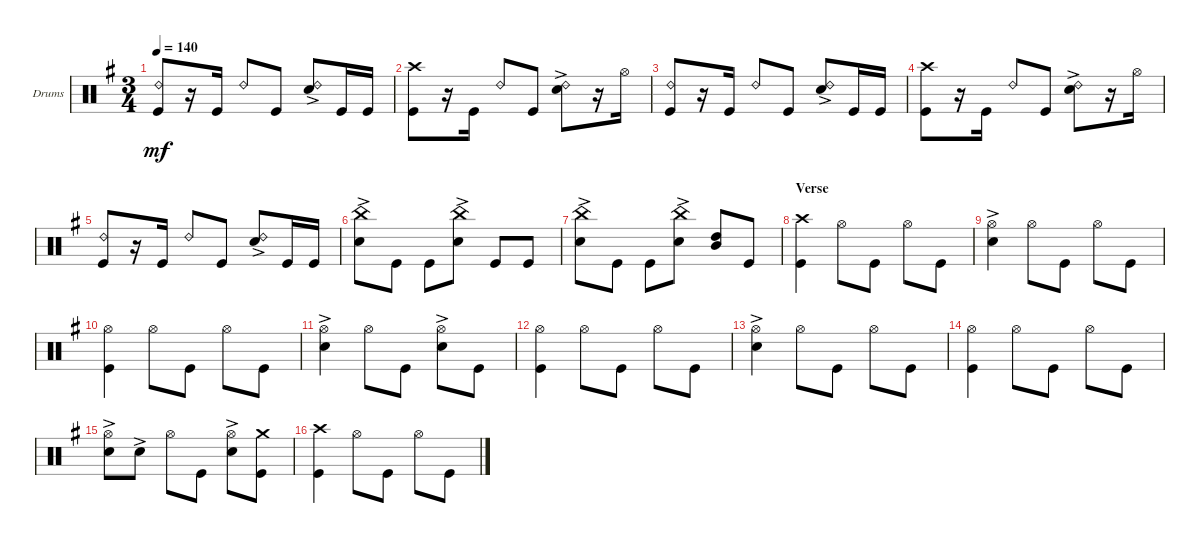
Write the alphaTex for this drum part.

\bracketExtendMode groupsimilarinstruments
\firstSystemTrackNameOrientation horizontal
\otherSystemsTrackNameOrientation horizontal
\track ("Drumkit" "Drums") {instrument percussion}
\staff {score}
\articulation defaults
\ts (3 4)
\tempo 140
\clef neutral
\ks eminor
("Kick (hit)" "Ride (bell) 2").8{dy mf} r.16 "Kick (hit)".16 "Ride (bell) 2".8 "Kick (hit)".8 ("Snare (hit) 2"{ac} "Ride (bell) 2").8 "Kick (hit)".16 "Kick (hit)".16 |
("Kick (hit)" "Crash high (hit)").8 r.16 "Kick (hit)".16 "Ride (bell) 2".8 "Kick (hit)".8 ("Snare (hit) 2"{ac} "Ride (bell) 2").8 r.16 "Hi-Hat (open)".16 |
("Kick (hit)" "Ride (bell) 2").8 r.16 "Kick (hit)".16 "Ride (bell) 2".8 "Kick (hit)".8 ("Snare (hit) 2"{ac} "Ride (bell) 2").8 "Kick (hit)".16 "Kick (hit)".16 |
("Kick (hit)" "Crash high (hit)").8 r.16 "Kick (hit)".16 "Ride (bell) 2".8 "Kick (hit)".8 ("Snare (hit) 2"{ac} "Ride (bell) 2").8 r.16 "Hi-Hat (open)".16 |
("Kick (hit)" "Ride (bell) 2").8 r.16 "Kick (hit)".16 "Ride (bell) 2".8 "Kick (hit)".8 ("Snare (hit) 2"{ac} "Ride (bell) 2").8 "Kick (hit)".16 "Kick (hit)".16 |
("Snare (hit) 2"{ac} "China (hit)").8 "Kick (hit)".8 "Kick (hit)".8 ("Snare (hit) 2"{ac} "China (hit)").8 "Kick (hit)".8 "Kick (hit)".8 |
("Snare (hit) 2"{ac} "China (hit)").8 "Kick (hit)".8 "Kick (hit)".8 ("Snare (hit) 2"{ac} "China (hit)").8 ("Mid Tom (hit)" "High Tom (hit)").8 "Kick (hit)".8 |
\section ("" "Verse")
("Kick (hit)" "Crash high (hit)").4 "Hi-Hat (open)".8 "Kick (hit)".8 "Hi-Hat (open)".8 "Kick (hit)".8 |
("Snare (hit) 2"{ac} "Hi-Hat (open)").4 "Hi-Hat (open)".8 "Kick (hit)".8 "Hi-Hat (open)".8 "Kick (hit)".8 |
("Kick (hit)" "Hi-Hat (open)").4 "Hi-Hat (open)".8 "Kick (hit)".8 "Hi-Hat (open)".8 "Kick (hit)".8 |
("Snare (hit) 2"{ac} "Hi-Hat (open)").4 "Hi-Hat (open)".8 "Kick (hit)".8 ("Hi-Hat (open)" "Snare (hit) 2"{ac}).8 "Kick (hit)".8 |
("Kick (hit)" "Hi-Hat (open)").4 "Hi-Hat (open)".8 "Kick (hit)".8 "Hi-Hat (open)".8 "Kick (hit)".8 |
("Snare (hit) 2"{ac} "Hi-Hat (open)").4 "Hi-Hat (open)".8 "Kick (hit)".8 "Hi-Hat (open)".8 "Kick (hit)".8 |
("Kick (hit)" "Hi-Hat (open)").4 "Hi-Hat (open)".8 "Kick (hit)".8 "Hi-Hat (open)".8 "Kick (hit)".8 |
("Snare (hit) 2"{ac} "Hi-Hat (open)").8 "Snare (hit) 2"{ac}.8 "Hi-Hat (open)".8 "Kick (hit)".8 ("Hi-Hat (open)" "Snare (hit) 2"{ac}).8 ("Kick (hit)" "Crash medium (hit)").8 |
("Kick (hit)" "Crash high (hit)").4 "Hi-Hat (open)".8 "Kick (hit)".8 "Hi-Hat (open)".8 "Kick (hit)".8
